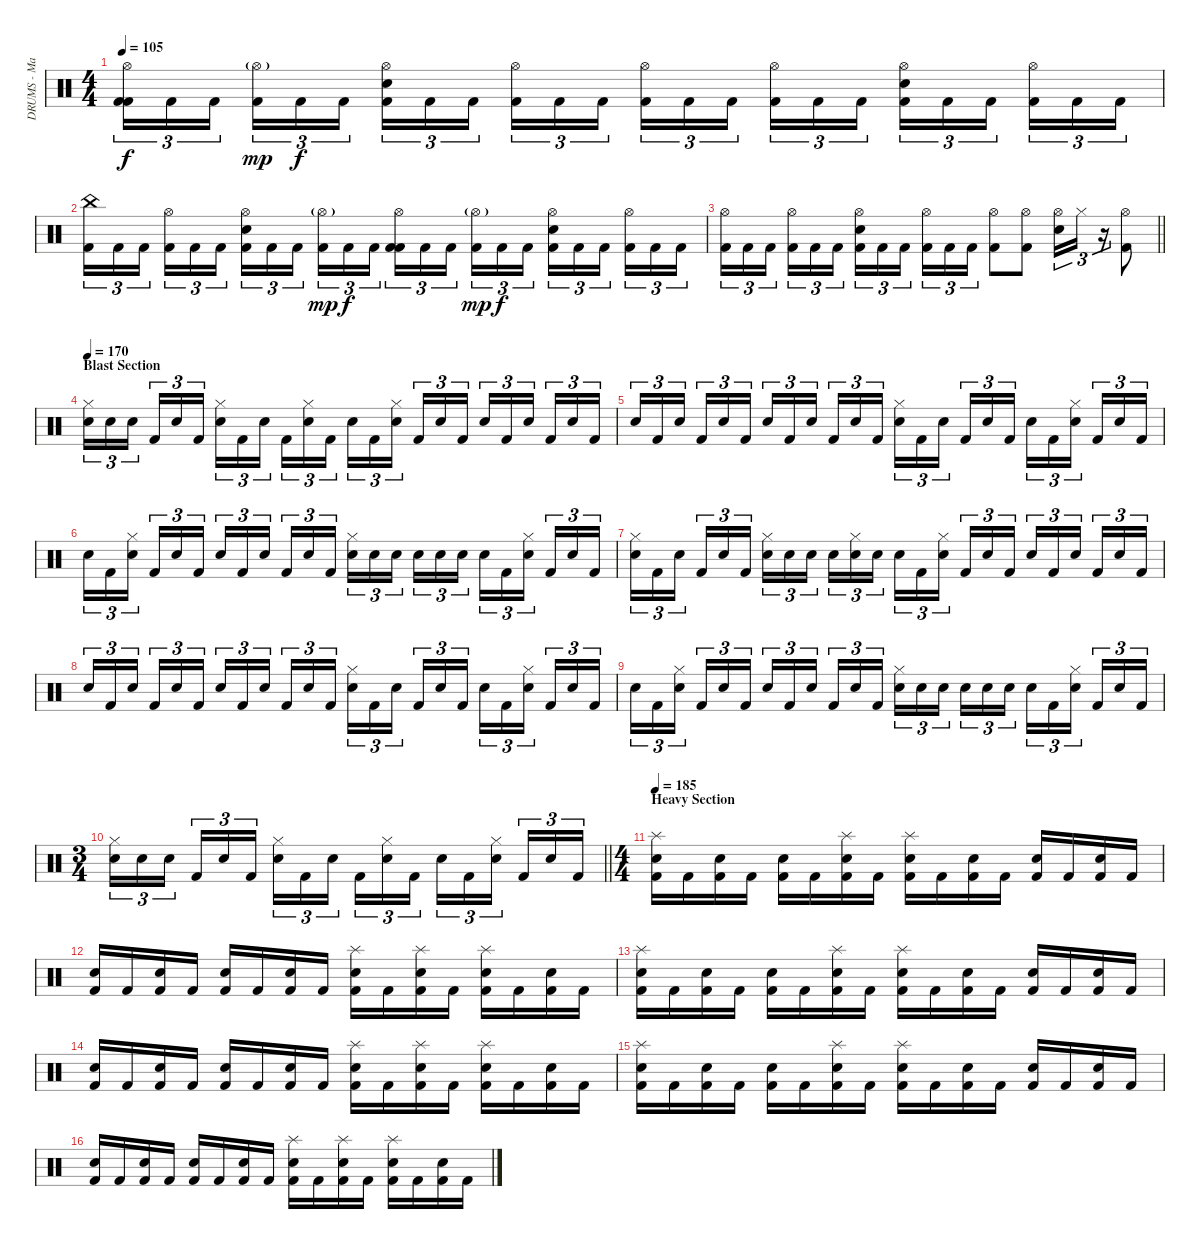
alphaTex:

\track ("DRUMS - Mario Duplantier" "DRUMS - Ma") {instrument percussion}
\staff {score}
\articulation defaults
\ts (4 4)
\tempo 105
\clef neutral
\ks c
("Hi-Hat (open)" "Kick (hit) 2" "Kick (hit) 2").16{tu (3 2) dy f} "Kick (hit) 2".16{tu (3 2)} "Kick (hit) 2".16{tu (3 2) beam splitsecondary} ("Hi-Hat (open)"{g} "Kick (hit) 2").16{tu (3 2) dy mp} "Kick (hit) 2".16{tu (3 2) dy f} "Kick (hit) 2".16{tu (3 2)} ("Hi-Hat (open)" "Electric Snare (hit)" "Kick (hit) 2").16{tu (3 2)} "Kick (hit) 2".16{tu (3 2)} "Kick (hit) 2".16{tu (3 2) beam splitsecondary} ("Hi-Hat (open)" "Kick (hit) 2").16{tu (3 2)} "Kick (hit) 2".16{tu (3 2)} "Kick (hit) 2".16{tu (3 2)} ("Hi-Hat (open)" "Kick (hit) 2").16{tu (3 2)} "Kick (hit) 2".16{tu (3 2)} "Kick (hit) 2".16{tu (3 2) beam splitsecondary} ("Hi-Hat (open)" "Kick (hit) 2").16{tu (3 2)} "Kick (hit) 2".16{tu (3 2)} "Kick (hit) 2".16{tu (3 2)} ("Hi-Hat (open)" "Electric Snare (hit)" "Kick (hit) 2").16{tu (3 2)} "Kick (hit) 2".16{tu (3 2)} "Kick (hit) 2".16{tu (3 2) beam splitsecondary} ("Hi-Hat (open)" "Kick (hit) 2").16{tu (3 2)} "Kick (hit) 2".16{tu (3 2)} "Kick (hit) 2".16{tu (3 2)} |
("China (hit)" "Kick (hit) 2").16{tu (3 2)} "Kick (hit) 2".16{tu (3 2)} "Kick (hit) 2".16{tu (3 2) beam splitsecondary} ("Hi-Hat (open)" "Kick (hit) 2").16{tu (3 2)} "Kick (hit) 2".16{tu (3 2)} "Kick (hit) 2".16{tu (3 2)} ("Hi-Hat (open)" "Electric Snare (hit)" "Kick (hit) 2").16{tu (3 2)} "Kick (hit) 2".16{tu (3 2)} "Kick (hit) 2".16{tu (3 2) beam splitsecondary} ("Hi-Hat (open)"{g} "Kick (hit) 2").16{tu (3 2) dy mp} "Kick (hit) 2".16{tu (3 2) dy f} "Kick (hit) 2".16{tu (3 2)} ("Hi-Hat (open)" "Kick (hit) 2" "Kick (hit) 2").16{tu (3 2)} "Kick (hit) 2".16{tu (3 2)} "Kick (hit) 2".16{tu (3 2) beam splitsecondary} ("Hi-Hat (open)"{g} "Kick (hit) 2").16{tu (3 2) dy mp} "Kick (hit) 2".16{tu (3 2) dy f} "Kick (hit) 2".16{tu (3 2)} ("Hi-Hat (open)" "Electric Snare (hit)" "Kick (hit) 2").16{tu (3 2)} "Kick (hit) 2".16{tu (3 2)} "Kick (hit) 2".16{tu (3 2) beam splitsecondary} ("Hi-Hat (open)" "Kick (hit) 2").16{tu (3 2)} "Kick (hit) 2".16{tu (3 2)} "Kick (hit) 2".16{tu (3 2)} |
\barLineRight lightlight
("Hi-Hat (open)" "Kick (hit) 2").16{tu (3 2)} "Kick (hit) 2".16{tu (3 2)} "Kick (hit) 2".16{tu (3 2) beam splitsecondary} ("Hi-Hat (open)" "Kick (hit) 2").16{tu (3 2)} "Kick (hit) 2".16{tu (3 2)} "Kick (hit) 2".16{tu (3 2)} ("Hi-Hat (open)" "Electric Snare (hit)" "Kick (hit) 2").16{tu (3 2)} "Kick (hit) 2".16{tu (3 2)} "Kick (hit) 2".16{tu (3 2) beam splitsecondary} ("Hi-Hat (open)" "Kick (hit) 2").16{tu (3 2)} "Kick (hit) 2".16{tu (3 2)} "Kick (hit) 2".16{tu (3 2)} ("Hi-Hat (open)" "Kick (hit) 2").8 ("Hi-Hat (open)" "Kick (hit) 2").8 ("Hi-Hat (open)" "Electric Snare (hit)").16{tu (3 2)} "Hi-Hat (closed)".16{tu (3 2)} r.16{tu (3 2)} ("Hi-Hat (open)" "Kick (hit) 2").8 |
\section ("" "Blast Section")
\tempo 170
("Hi-Hat (closed)" "Electric Snare (hit)").16{tu (3 2)} "Electric Snare (hit)".16{tu (3 2)} "Electric Snare (hit)".16{tu (3 2) beam splitsecondary} "Kick (hit) 2".16{tu (3 2)} "Electric Snare (hit)".16{tu (3 2)} "Kick (hit) 2".16{tu (3 2)} ("Hi-Hat (closed)" "Electric Snare (hit)").16{tu (3 2)} "Kick (hit) 2".16{tu (3 2)} "Electric Snare (hit)".16{tu (3 2) beam splitsecondary} "Kick (hit) 2".16{tu (3 2)} ("Hi-Hat (closed)" "Electric Snare (hit)").16{tu (3 2)} "Kick (hit) 2".16{tu (3 2)} "Electric Snare (hit)".16{tu (3 2)} "Kick (hit) 2".16{tu (3 2)} ("Hi-Hat (closed)" "Electric Snare (hit)").16{tu (3 2) beam splitsecondary} "Kick (hit) 2".16{tu (3 2)} "Electric Snare (hit)".16{tu (3 2)} "Kick (hit) 2".16{tu (3 2)} "Electric Snare (hit)".16{tu (3 2)} "Kick (hit) 2".16{tu (3 2)} "Electric Snare (hit)".16{tu (3 2) beam splitsecondary} "Kick (hit) 2".16{tu (3 2)} "Electric Snare (hit)".16{tu (3 2)} "Kick (hit) 2".16{tu (3 2)} |
"Electric Snare (hit)".16{tu (3 2)} "Kick (hit) 2".16{tu (3 2)} "Electric Snare (hit)".16{tu (3 2) beam splitsecondary} "Kick (hit) 2".16{tu (3 2)} "Electric Snare (hit)".16{tu (3 2)} "Kick (hit) 2".16{tu (3 2)} "Electric Snare (hit)".16{tu (3 2)} "Kick (hit) 2".16{tu (3 2)} "Electric Snare (hit)".16{tu (3 2) beam splitsecondary} "Kick (hit) 2".16{tu (3 2)} "Electric Snare (hit)".16{tu (3 2)} "Kick (hit) 2".16{tu (3 2)} ("Hi-Hat (closed)" "Electric Snare (hit)").16{tu (3 2)} "Kick (hit) 2".16{tu (3 2)} "Electric Snare (hit)".16{tu (3 2) beam splitsecondary} "Kick (hit) 2".16{tu (3 2)} "Electric Snare (hit)".16{tu (3 2)} "Kick (hit) 2".16{tu (3 2)} "Electric Snare (hit)".16{tu (3 2)} "Kick (hit) 2".16{tu (3 2)} ("Hi-Hat (closed)" "Electric Snare (hit)").16{tu (3 2) beam splitsecondary} "Kick (hit) 2".16{tu (3 2)} "Electric Snare (hit)".16{tu (3 2)} "Kick (hit) 2".16{tu (3 2)} |
"Electric Snare (hit)".16{tu (3 2)} "Kick (hit) 2".16{tu (3 2)} ("Hi-Hat (closed)" "Electric Snare (hit)").16{tu (3 2) beam splitsecondary} "Kick (hit) 2".16{tu (3 2)} "Electric Snare (hit)".16{tu (3 2)} "Kick (hit) 2".16{tu (3 2)} "Electric Snare (hit)".16{tu (3 2)} "Kick (hit) 2".16{tu (3 2)} "Electric Snare (hit)".16{tu (3 2) beam splitsecondary} "Kick (hit) 2".16{tu (3 2)} "Electric Snare (hit)".16{tu (3 2)} "Kick (hit) 2".16{tu (3 2)} ("Hi-Hat (closed)" "Electric Snare (hit)").16{tu (3 2)} "Electric Snare (hit)".16{tu (3 2)} "Electric Snare (hit)".16{tu (3 2) beam splitsecondary} "Electric Snare (hit)".16{tu (3 2)} "Electric Snare (hit)".16{tu (3 2)} "Electric Snare (hit)".16{tu (3 2)} "Electric Snare (hit)".16{tu (3 2)} "Kick (hit) 2".16{tu (3 2)} ("Hi-Hat (closed)" "Electric Snare (hit)").16{tu (3 2) beam splitsecondary} "Kick (hit) 2".16{tu (3 2)} "Electric Snare (hit)".16{tu (3 2)} "Kick (hit) 2".16{tu (3 2)} |
("Hi-Hat (closed)" "Electric Snare (hit)").16{tu (3 2)} "Kick (hit) 2".16{tu (3 2)} "Electric Snare (hit)".16{tu (3 2) beam splitsecondary} "Kick (hit) 2".16{tu (3 2)} "Electric Snare (hit)".16{tu (3 2)} "Kick (hit) 2".16{tu (3 2)} ("Hi-Hat (closed)" "Electric Snare (hit)").16{tu (3 2)} "Electric Snare (hit)".16{tu (3 2)} "Electric Snare (hit)".16{tu (3 2) beam splitsecondary} "Electric Snare (hit)".16{tu (3 2)} ("Hi-Hat (closed)" "Electric Snare (hit)").16{tu (3 2)} "Electric Snare (hit)".16{tu (3 2)} "Electric Snare (hit)".16{tu (3 2)} "Kick (hit) 2".16{tu (3 2)} ("Hi-Hat (closed)" "Electric Snare (hit)").16{tu (3 2) beam splitsecondary} "Kick (hit) 2".16{tu (3 2)} "Electric Snare (hit)".16{tu (3 2)} "Kick (hit) 2".16{tu (3 2)} "Electric Snare (hit)".16{tu (3 2)} "Kick (hit) 2".16{tu (3 2)} "Electric Snare (hit)".16{tu (3 2) beam splitsecondary} "Kick (hit) 2".16{tu (3 2)} "Electric Snare (hit)".16{tu (3 2)} "Kick (hit) 2".16{tu (3 2)} |
"Electric Snare (hit)".16{tu (3 2)} "Kick (hit) 2".16{tu (3 2)} "Electric Snare (hit)".16{tu (3 2) beam splitsecondary} "Kick (hit) 2".16{tu (3 2)} "Electric Snare (hit)".16{tu (3 2)} "Kick (hit) 2".16{tu (3 2)} "Electric Snare (hit)".16{tu (3 2)} "Kick (hit) 2".16{tu (3 2)} "Electric Snare (hit)".16{tu (3 2) beam splitsecondary} "Kick (hit) 2".16{tu (3 2)} "Electric Snare (hit)".16{tu (3 2)} "Kick (hit) 2".16{tu (3 2)} ("Hi-Hat (closed)" "Electric Snare (hit)").16{tu (3 2)} "Kick (hit) 2".16{tu (3 2)} "Electric Snare (hit)".16{tu (3 2) beam splitsecondary} "Kick (hit) 2".16{tu (3 2)} "Electric Snare (hit)".16{tu (3 2)} "Kick (hit) 2".16{tu (3 2)} "Electric Snare (hit)".16{tu (3 2)} "Kick (hit) 2".16{tu (3 2)} ("Hi-Hat (closed)" "Electric Snare (hit)").16{tu (3 2) beam splitsecondary} "Kick (hit) 2".16{tu (3 2)} "Electric Snare (hit)".16{tu (3 2)} "Kick (hit) 2".16{tu (3 2)} |
"Electric Snare (hit)".16{tu (3 2)} "Kick (hit) 2".16{tu (3 2)} ("Hi-Hat (closed)" "Electric Snare (hit)").16{tu (3 2) beam splitsecondary} "Kick (hit) 2".16{tu (3 2)} "Electric Snare (hit)".16{tu (3 2)} "Kick (hit) 2".16{tu (3 2)} "Electric Snare (hit)".16{tu (3 2)} "Kick (hit) 2".16{tu (3 2)} "Electric Snare (hit)".16{tu (3 2) beam splitsecondary} "Kick (hit) 2".16{tu (3 2)} "Electric Snare (hit)".16{tu (3 2)} "Kick (hit) 2".16{tu (3 2)} ("Hi-Hat (closed)" "Electric Snare (hit)").16{tu (3 2)} "Electric Snare (hit)".16{tu (3 2)} "Electric Snare (hit)".16{tu (3 2) beam splitsecondary} "Electric Snare (hit)".16{tu (3 2)} "Electric Snare (hit)".16{tu (3 2)} "Electric Snare (hit)".16{tu (3 2)} "Electric Snare (hit)".16{tu (3 2)} "Kick (hit) 2".16{tu (3 2)} ("Hi-Hat (closed)" "Electric Snare (hit)").16{tu (3 2) beam splitsecondary} "Kick (hit) 2".16{tu (3 2)} "Electric Snare (hit)".16{tu (3 2)} "Kick (hit) 2".16{tu (3 2)} |
\ts (3 4)
\barLineRight lightlight
("Hi-Hat (closed)" "Electric Snare (hit)").16{tu (3 2)} "Electric Snare (hit)".16{tu (3 2)} "Electric Snare (hit)".16{tu (3 2) beam splitsecondary} "Kick (hit) 2".16{tu (3 2)} "Electric Snare (hit)".16{tu (3 2)} "Kick (hit) 2".16{tu (3 2)} ("Hi-Hat (closed)" "Electric Snare (hit)").16{tu (3 2)} "Kick (hit) 2".16{tu (3 2)} "Electric Snare (hit)".16{tu (3 2) beam splitsecondary} "Kick (hit) 2".16{tu (3 2)} ("Hi-Hat (closed)" "Electric Snare (hit)").16{tu (3 2)} "Kick (hit) 2".16{tu (3 2)} "Electric Snare (hit)".16{tu (3 2)} "Kick (hit) 2".16{tu (3 2)} ("Hi-Hat (closed)" "Electric Snare (hit)").16{tu (3 2) beam splitsecondary} "Kick (hit) 2".16{tu (3 2)} "Electric Snare (hit)".16{tu (3 2)} "Kick (hit) 2".16{tu (3 2)} |
\ts (4 4)
\section ("" "Heavy Section")
\tempo 185
("Splash (hit)" "Electric Snare (hit)" "Kick (hit) 2").16 "Kick (hit) 2".16 ("Electric Snare (hit)" "Kick (hit) 2").16 "Kick (hit) 2".16 ("Electric Snare (hit)" "Kick (hit) 2").16 "Kick (hit) 2".16 ("Splash (hit)" "Electric Snare (hit)" "Kick (hit) 2").16 "Kick (hit) 2".16 ("Splash (hit)" "Electric Snare (hit)" "Kick (hit) 2").16 "Kick (hit) 2".16 ("Electric Snare (hit)" "Kick (hit) 2").16 "Kick (hit) 2".16 ("Electric Snare (hit)" "Kick (hit) 2").16 "Kick (hit) 2".16 ("Electric Snare (hit)" "Kick (hit) 2").16 "Kick (hit) 2".16 |
("Electric Snare (hit)" "Kick (hit) 2").16 "Kick (hit) 2".16 ("Electric Snare (hit)" "Kick (hit) 2").16 "Kick (hit) 2".16 ("Electric Snare (hit)" "Kick (hit) 2").16 "Kick (hit) 2".16 ("Electric Snare (hit)" "Kick (hit) 2").16 "Kick (hit) 2".16 ("Splash (hit)" "Electric Snare (hit)" "Kick (hit) 2").16 "Kick (hit) 2".16 ("Splash (hit)" "Electric Snare (hit)" "Kick (hit) 2").16 "Kick (hit) 2".16 ("Splash (hit)" "Electric Snare (hit)" "Kick (hit) 2").16 "Kick (hit) 2".16 ("Electric Snare (hit)" "Kick (hit) 2").16 "Kick (hit) 2".16 |
("Splash (hit)" "Electric Snare (hit)" "Kick (hit) 2").16 "Kick (hit) 2".16 ("Electric Snare (hit)" "Kick (hit) 2").16 "Kick (hit) 2".16 ("Electric Snare (hit)" "Kick (hit) 2").16 "Kick (hit) 2".16 ("Splash (hit)" "Electric Snare (hit)" "Kick (hit) 2").16 "Kick (hit) 2".16 ("Splash (hit)" "Electric Snare (hit)" "Kick (hit) 2").16 "Kick (hit) 2".16 ("Electric Snare (hit)" "Kick (hit) 2").16 "Kick (hit) 2".16 ("Electric Snare (hit)" "Kick (hit) 2").16 "Kick (hit) 2".16 ("Electric Snare (hit)" "Kick (hit) 2").16 "Kick (hit) 2".16 |
("Electric Snare (hit)" "Kick (hit) 2").16 "Kick (hit) 2".16 ("Electric Snare (hit)" "Kick (hit) 2").16 "Kick (hit) 2".16 ("Electric Snare (hit)" "Kick (hit) 2").16 "Kick (hit) 2".16 ("Electric Snare (hit)" "Kick (hit) 2").16 "Kick (hit) 2".16 ("Splash (hit)" "Electric Snare (hit)" "Kick (hit) 2").16 "Kick (hit) 2".16 ("Splash (hit)" "Electric Snare (hit)" "Kick (hit) 2").16 "Kick (hit) 2".16 ("Splash (hit)" "Electric Snare (hit)" "Kick (hit) 2").16 "Kick (hit) 2".16 ("Electric Snare (hit)" "Kick (hit) 2").16 "Kick (hit) 2".16 |
("Splash (hit)" "Electric Snare (hit)" "Kick (hit) 2").16 "Kick (hit) 2".16 ("Electric Snare (hit)" "Kick (hit) 2").16 "Kick (hit) 2".16 ("Electric Snare (hit)" "Kick (hit) 2").16 "Kick (hit) 2".16 ("Splash (hit)" "Electric Snare (hit)" "Kick (hit) 2").16 "Kick (hit) 2".16 ("Splash (hit)" "Electric Snare (hit)" "Kick (hit) 2").16 "Kick (hit) 2".16 ("Electric Snare (hit)" "Kick (hit) 2").16 "Kick (hit) 2".16 ("Electric Snare (hit)" "Kick (hit) 2").16 "Kick (hit) 2".16 ("Electric Snare (hit)" "Kick (hit) 2").16 "Kick (hit) 2".16 |
("Electric Snare (hit)" "Kick (hit) 2").16 "Kick (hit) 2".16 ("Electric Snare (hit)" "Kick (hit) 2").16 "Kick (hit) 2".16 ("Electric Snare (hit)" "Kick (hit) 2").16 "Kick (hit) 2".16 ("Electric Snare (hit)" "Kick (hit) 2").16 "Kick (hit) 2".16 ("Splash (hit)" "Electric Snare (hit)" "Kick (hit) 2").16 "Kick (hit) 2".16 ("Splash (hit)" "Electric Snare (hit)" "Kick (hit) 2").16 "Kick (hit) 2".16 ("Splash (hit)" "Electric Snare (hit)" "Kick (hit) 2").16 "Kick (hit) 2".16 ("Electric Snare (hit)" "Kick (hit) 2").16 "Kick (hit) 2".16
